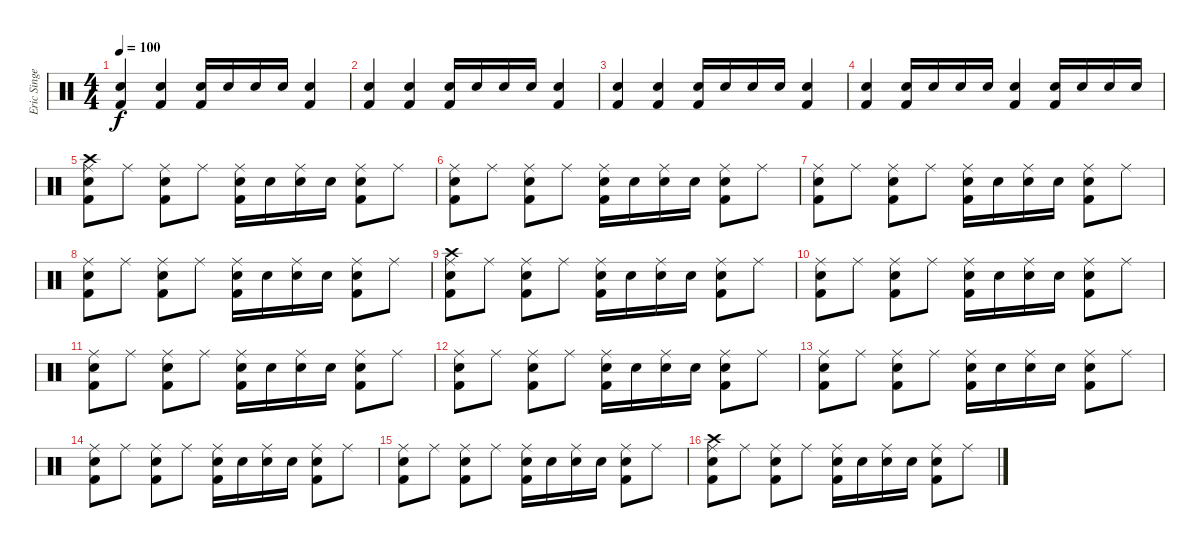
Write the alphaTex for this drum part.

\track ("Eric Singer" "Eric Singe") {instrument percussion}
\staff {score}
\articulation defaults
\ts (4 4)
\tempo 100
\clef neutral
\ks c
("Snare (hit) 2" "Kick (hit) 2").4{dy f} ("Snare (hit) 2" "Kick (hit) 2").4 ("Snare (hit) 2" "Kick (hit) 2").16 "Snare (hit) 2".16 "Snare (hit) 2".16 "Snare (hit) 2".16 ("Snare (hit) 2" "Kick (hit) 2").4 |
("Snare (hit) 2" "Kick (hit) 2").4 ("Snare (hit) 2" "Kick (hit) 2").4 ("Snare (hit) 2" "Kick (hit) 2").16 "Snare (hit) 2".16 "Snare (hit) 2".16 "Snare (hit) 2".16 ("Snare (hit) 2" "Kick (hit) 2").4 |
("Snare (hit) 2" "Kick (hit) 2").4 ("Snare (hit) 2" "Kick (hit) 2").4 ("Snare (hit) 2" "Kick (hit) 2").16 "Snare (hit) 2".16 "Snare (hit) 2".16 "Snare (hit) 2".16 ("Snare (hit) 2" "Kick (hit) 2").4 |
("Snare (hit) 2" "Kick (hit) 2").4 ("Snare (hit) 2" "Kick (hit) 2").16 "Snare (hit) 2".16 "Snare (hit) 2".16 "Snare (hit) 2".16 ("Snare (hit) 2" "Kick (hit) 2").4 ("Snare (hit) 2" "Kick (hit) 2").16 "Snare (hit) 2".16 "Snare (hit) 2".16 "Snare (hit) 2".16 |
("Ride (middle)" "Crash high (hit)" "Snare (hit) 2" "Kick (hit) 2").8 "Ride (middle)".8 ("Ride (middle)" "Snare (hit) 2" "Kick (hit) 2").8 "Ride (middle)".8 ("Ride (middle)" "Snare (hit) 2" "Kick (hit) 2").16 "Snare (hit) 2".16 ("Ride (middle)" "Snare (hit) 2").16 "Snare (hit) 2".16 ("Ride (middle)" "Snare (hit) 2" "Kick (hit) 2").8 "Ride (middle)".8 |
("Ride (middle)" "Snare (hit) 2" "Kick (hit) 2").8 "Ride (middle)".8 ("Ride (middle)" "Snare (hit) 2" "Kick (hit) 2").8 "Ride (middle)".8 ("Ride (middle)" "Snare (hit) 2" "Kick (hit) 2").16 "Snare (hit) 2".16 ("Ride (middle)" "Snare (hit) 2").16 "Snare (hit) 2".16 ("Ride (middle)" "Snare (hit) 2" "Kick (hit) 2").8 "Ride (middle)".8 |
("Ride (middle)" "Snare (hit) 2" "Kick (hit) 2").8 "Ride (middle)".8 ("Ride (middle)" "Snare (hit) 2" "Kick (hit) 2").8 "Ride (middle)".8 ("Ride (middle)" "Snare (hit) 2" "Kick (hit) 2").16 "Snare (hit) 2".16 ("Ride (middle)" "Snare (hit) 2").16 "Snare (hit) 2".16 ("Ride (middle)" "Snare (hit) 2" "Kick (hit) 2").8 "Ride (middle)".8 |
("Ride (middle)" "Snare (hit) 2" "Kick (hit) 2").8 "Ride (middle)".8 ("Ride (middle)" "Snare (hit) 2" "Kick (hit) 2").8 "Ride (middle)".8 ("Ride (middle)" "Snare (hit) 2" "Kick (hit) 2").16 "Snare (hit) 2".16 ("Ride (middle)" "Snare (hit) 2").16 "Snare (hit) 2".16 ("Ride (middle)" "Snare (hit) 2" "Kick (hit) 2").8 "Ride (middle)".8 |
("Ride (middle)" "Crash high (hit)" "Snare (hit) 2" "Kick (hit) 2").8 "Ride (middle)".8 ("Ride (middle)" "Snare (hit) 2" "Kick (hit) 2").8 "Ride (middle)".8 ("Ride (middle)" "Snare (hit) 2" "Kick (hit) 2").16 "Snare (hit) 2".16 ("Ride (middle)" "Snare (hit) 2").16 "Snare (hit) 2".16 ("Ride (middle)" "Snare (hit) 2" "Kick (hit) 2").8 "Ride (middle)".8 |
("Ride (middle)" "Snare (hit) 2" "Kick (hit) 2").8 "Ride (middle)".8 ("Ride (middle)" "Snare (hit) 2" "Kick (hit) 2").8 "Ride (middle)".8 ("Ride (middle)" "Snare (hit) 2" "Kick (hit) 2").16 "Snare (hit) 2".16 ("Ride (middle)" "Snare (hit) 2").16 "Snare (hit) 2".16 ("Ride (middle)" "Snare (hit) 2" "Kick (hit) 2").8 "Ride (middle)".8 |
("Ride (middle)" "Snare (hit) 2" "Kick (hit) 2").8 "Ride (middle)".8 ("Ride (middle)" "Snare (hit) 2" "Kick (hit) 2").8 "Ride (middle)".8 ("Ride (middle)" "Snare (hit) 2" "Kick (hit) 2").16 "Snare (hit) 2".16 ("Ride (middle)" "Snare (hit) 2").16 "Snare (hit) 2".16 ("Ride (middle)" "Snare (hit) 2" "Kick (hit) 2").8 "Ride (middle)".8 |
("Ride (middle)" "Snare (hit) 2" "Kick (hit) 2").8 "Ride (middle)".8 ("Ride (middle)" "Snare (hit) 2" "Kick (hit) 2").8 "Ride (middle)".8 ("Ride (middle)" "Snare (hit) 2" "Kick (hit) 2").16 "Snare (hit) 2".16 ("Ride (middle)" "Snare (hit) 2").16 "Snare (hit) 2".16 ("Ride (middle)" "Snare (hit) 2" "Kick (hit) 2").8 "Ride (middle)".8 |
("Ride (middle)" "Snare (hit) 2" "Kick (hit) 2").8 "Ride (middle)".8 ("Ride (middle)" "Snare (hit) 2" "Kick (hit) 2").8 "Ride (middle)".8 ("Ride (middle)" "Snare (hit) 2" "Kick (hit) 2").16 "Snare (hit) 2".16 ("Ride (middle)" "Snare (hit) 2").16 "Snare (hit) 2".16 ("Ride (middle)" "Snare (hit) 2" "Kick (hit) 2").8 "Ride (middle)".8 |
("Ride (middle)" "Snare (hit) 2" "Kick (hit) 2").8 "Ride (middle)".8 ("Ride (middle)" "Snare (hit) 2" "Kick (hit) 2").8 "Ride (middle)".8 ("Ride (middle)" "Snare (hit) 2" "Kick (hit) 2").16 "Snare (hit) 2".16 ("Ride (middle)" "Snare (hit) 2").16 "Snare (hit) 2".16 ("Ride (middle)" "Snare (hit) 2" "Kick (hit) 2").8 "Ride (middle)".8 |
("Ride (middle)" "Snare (hit) 2" "Kick (hit) 2").8 "Ride (middle)".8 ("Ride (middle)" "Snare (hit) 2" "Kick (hit) 2").8 "Ride (middle)".8 ("Ride (middle)" "Snare (hit) 2" "Kick (hit) 2").16 "Snare (hit) 2".16 ("Ride (middle)" "Snare (hit) 2").16 "Snare (hit) 2".16 ("Ride (middle)" "Snare (hit) 2" "Kick (hit) 2").8 "Ride (middle)".8 |
("Ride (middle)" "Crash high (hit)" "Snare (hit) 2" "Kick (hit) 2").8 "Ride (middle)".8 ("Ride (middle)" "Snare (hit) 2" "Kick (hit) 2").8 "Ride (middle)".8 ("Ride (middle)" "Snare (hit) 2" "Kick (hit) 2").16 "Snare (hit) 2".16 ("Ride (middle)" "Snare (hit) 2").16 "Snare (hit) 2".16 ("Ride (middle)" "Snare (hit) 2" "Kick (hit) 2").8 "Ride (middle)".8
